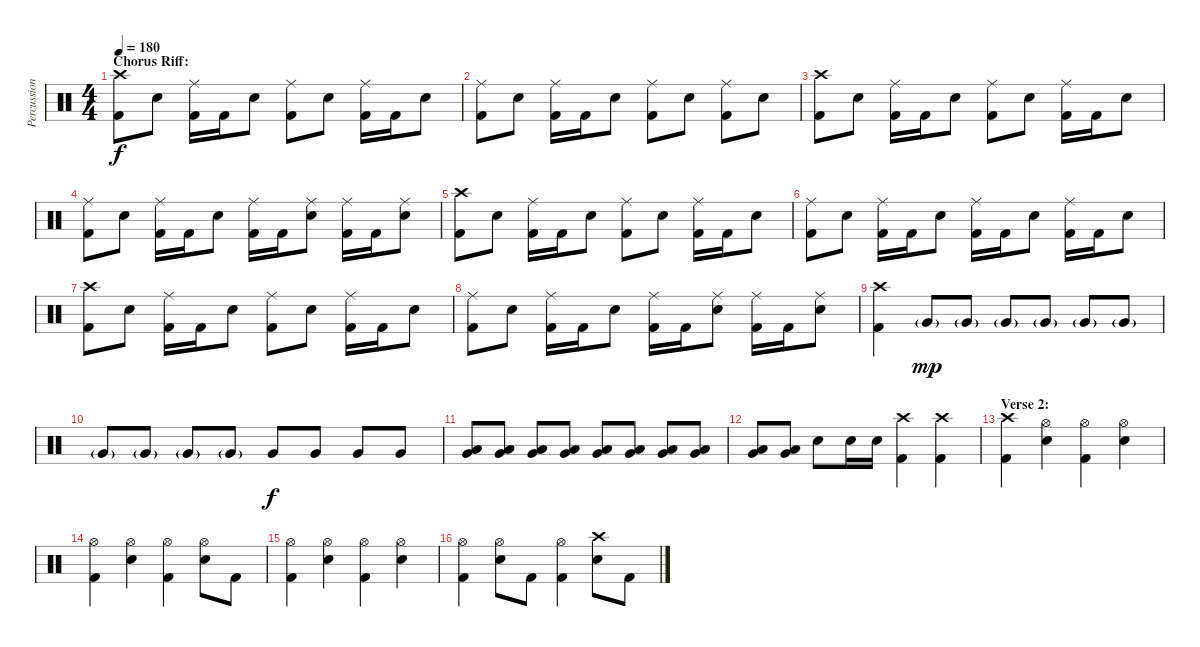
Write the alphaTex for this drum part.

\track ("Percussion" "Percussion") {instrument percussion}
\staff {score}
\articulation defaults
\ts (4 4)
\section ("" "Chorus Riff:")
\tempo 180
\clef neutral
\ks c
("Crash high (hit)" "Kick (hit) 2").8{dy f} "Electric Snare (hit)".8 ("Ride (middle)" "Kick (hit) 2").16 "Kick (hit) 2".16 "Electric Snare (hit)".8 ("Ride (middle)" "Kick (hit) 2").8 "Electric Snare (hit)".8 ("Ride (middle)" "Kick (hit) 2").16 "Kick (hit) 2".16 "Electric Snare (hit)".8 |
("Ride (middle)" "Kick (hit) 2").8 "Electric Snare (hit)".8 ("Ride (middle)" "Kick (hit) 2").16 "Kick (hit) 2".16 "Electric Snare (hit)".8 ("Ride (middle)" "Kick (hit) 2").8 "Electric Snare (hit)".8 ("Ride (middle)" "Kick (hit) 2").8 "Electric Snare (hit)".8 |
("Crash high (hit)" "Kick (hit) 2").8 "Electric Snare (hit)".8 ("Ride (middle)" "Kick (hit) 2").16 "Kick (hit) 2".16 "Electric Snare (hit)".8 ("Ride (middle)" "Kick (hit) 2").8 "Electric Snare (hit)".8 ("Ride (middle)" "Kick (hit) 2").16 "Kick (hit) 2".16 "Electric Snare (hit)".8 |
("Ride (middle)" "Kick (hit) 2").8 "Electric Snare (hit)".8 ("Ride (middle)" "Kick (hit) 2").16 "Kick (hit) 2".16 "Electric Snare (hit)".8 ("Ride (middle)" "Kick (hit) 2").16 "Kick (hit) 2".16 ("Ride (middle)" "Electric Snare (hit)").8 ("Ride (middle)" "Kick (hit) 2").16 "Kick (hit) 2".16 ("Ride (middle)" "Electric Snare (hit)").8 |
("Crash high (hit)" "Kick (hit) 2").8 "Electric Snare (hit)".8 ("Ride (middle)" "Kick (hit) 2").16 "Kick (hit) 2".16 "Electric Snare (hit)".8 ("Ride (middle)" "Kick (hit) 2").8 "Electric Snare (hit)".8 ("Ride (middle)" "Kick (hit) 2").16 "Kick (hit) 2".16 "Electric Snare (hit)".8 |
("Ride (middle)" "Kick (hit) 2").8 "Electric Snare (hit)".8 ("Ride (middle)" "Kick (hit) 2").16 "Kick (hit) 2".16 "Electric Snare (hit)".8 ("Ride (middle)" "Kick (hit) 2").16 "Kick (hit) 2".16 "Electric Snare (hit)".8 ("Ride (middle)" "Kick (hit) 2").16 "Kick (hit) 2".16 "Electric Snare (hit)".8 |
("Crash high (hit)" "Kick (hit) 2").8 "Electric Snare (hit)".8 ("Ride (middle)" "Kick (hit) 2").16 "Kick (hit) 2".16 "Electric Snare (hit)".8 ("Ride (middle)" "Kick (hit) 2").8 "Electric Snare (hit)".8 ("Ride (middle)" "Kick (hit) 2").16 "Kick (hit) 2".16 "Electric Snare (hit)".8 |
("Ride (middle)" "Kick (hit) 2").8 "Electric Snare (hit)".8 ("Ride (middle)" "Kick (hit) 2").16 "Kick (hit) 2".16 "Electric Snare (hit)".8 ("Ride (middle)" "Kick (hit) 2").16 "Kick (hit) 2".16 ("Ride (middle)" "Electric Snare (hit)").8 ("Ride (middle)" "Kick (hit) 2").16 "Kick (hit) 2".16 ("Ride (middle)" "Electric Snare (hit)").8 |
("Crash high (hit)" "Kick (hit) 2").4 "Very Low Tom (hit)"{g}.8{dy mp} "Very Low Tom (hit)"{g}.8 "Very Low Tom (hit)"{g}.8 "Very Low Tom (hit)"{g}.8 "Very Low Tom (hit)"{g}.8 "Very Low Tom (hit)"{g}.8 |
"Very Low Tom (hit)"{g}.8 "Very Low Tom (hit)"{g}.8 "Very Low Tom (hit)"{g}.8 "Very Low Tom (hit)"{g}.8 "Very Low Tom (hit)".8{dy f} "Very Low Tom (hit)".8 "Very Low Tom (hit)".8 "Very Low Tom (hit)".8 |
("Low Tom (hit)" "Very Low Tom (hit)").8 ("Low Tom (hit)" "Very Low Tom (hit)").8 ("Low Tom (hit)" "Very Low Tom (hit)").8 ("Low Tom (hit)" "Very Low Tom (hit)").8 ("Low Tom (hit)" "Very Low Tom (hit)").8 ("Low Tom (hit)" "Very Low Tom (hit)").8 ("Low Tom (hit)" "Very Low Tom (hit)").8 ("Low Tom (hit)" "Very Low Tom (hit)").8 |
("Low Tom (hit)" "Very Low Tom (hit)").8 ("Low Tom (hit)" "Very Low Tom (hit)").8 "Electric Snare (hit)".8 "Electric Snare (hit)".16 "Electric Snare (hit)".16 ("Crash high (hit)" "Kick (hit) 2").4 ("Crash high (hit)" "Kick (hit) 2").4 |
\section ("" "Verse 2:")
("Crash high (hit)" "Kick (hit) 2").4 ("Hi-Hat (open)" "Electric Snare (hit)").4 ("Hi-Hat (open)" "Kick (hit) 2").4 ("Hi-Hat (open)" "Electric Snare (hit)").4 |
("Hi-Hat (open)" "Kick (hit) 2").4 ("Hi-Hat (open)" "Electric Snare (hit)").4 ("Hi-Hat (open)" "Kick (hit) 2").4 ("Hi-Hat (open)" "Electric Snare (hit)").8 "Kick (hit) 2".8 |
("Hi-Hat (open)" "Kick (hit) 2").4 ("Hi-Hat (open)" "Electric Snare (hit)").4 ("Hi-Hat (open)" "Kick (hit) 2").4 ("Hi-Hat (open)" "Electric Snare (hit)").4 |
("Hi-Hat (open)" "Kick (hit) 2").4 ("Hi-Hat (open)" "Electric Snare (hit)").8 "Kick (hit) 2".8 ("Hi-Hat (open)" "Kick (hit) 2").4 ("Crash high (hit)" "Electric Snare (hit)").8 "Kick (hit) 2".8
